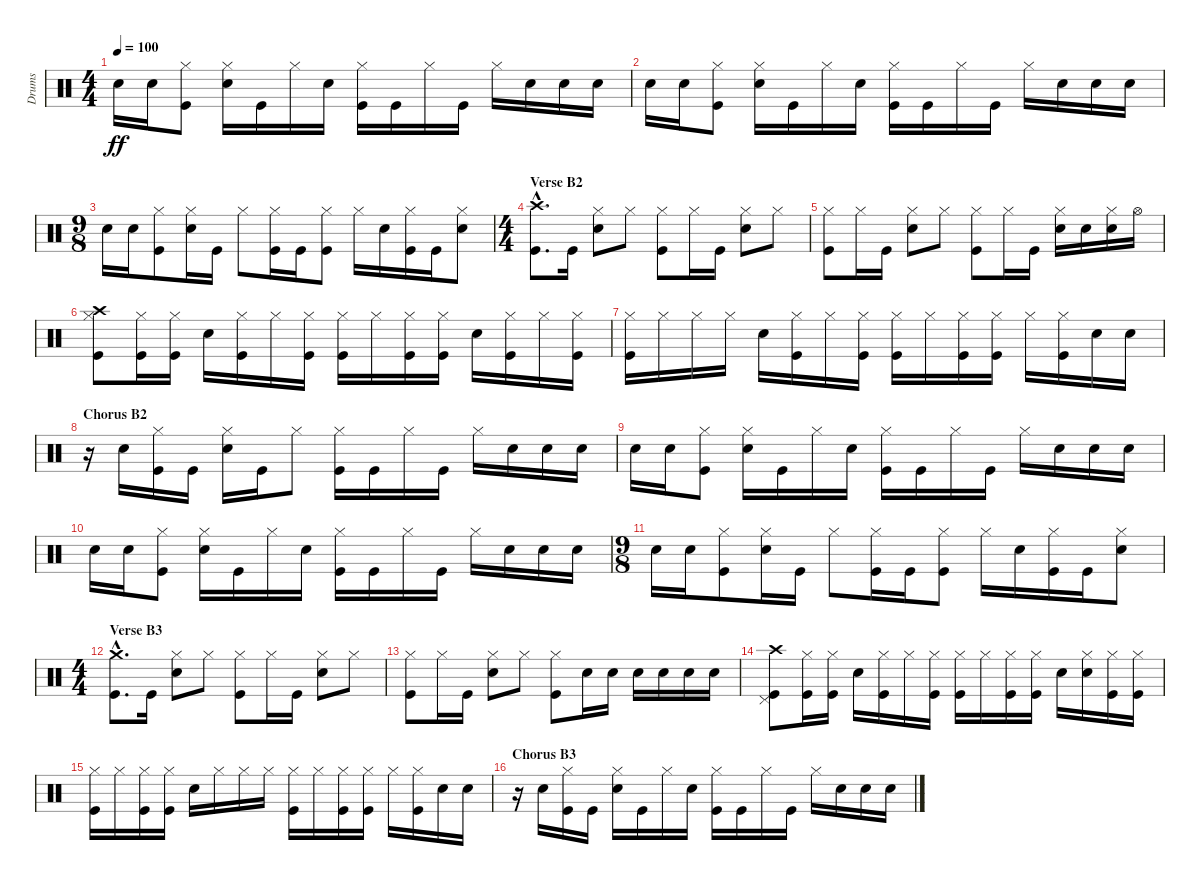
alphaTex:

\track ("Drums" "Drums") {instrument percussion}
\staff {score}
\articulation defaults
\ts (4 4)
\tempo 100
\clef neutral
\ks c "Electric Snare (hit)".16{dy ff} "Electric Snare (hit)".16
("Hi-Hat (closed)" "Kick (hit)").8 ("Hi-Hat (closed)" "Electric Snare (hit)").16 "Kick (hit)".16 "Hi-Hat (closed)".16 "Electric Snare (hit)".16 ("Hi-Hat (closed)" "Kick (hit)").16 "Kick (hit)".16 "Hi-Hat (closed)".16 "Kick (hit)".16 "Hi-Hat (closed)".16 "Electric Snare (hit)".16 "Electric Snare (hit)".16 "Electric Snare (hit)".16 |
"Electric Snare (hit)".16 "Electric Snare (hit)".16 ("Hi-Hat (closed)" "Kick (hit)").8 ("Hi-Hat (closed)" "Electric Snare (hit)").16 "Kick (hit)".16 "Hi-Hat (closed)".16 "Electric Snare (hit)".16 ("Hi-Hat (closed)" "Kick (hit)").16 "Kick (hit)".16 "Hi-Hat (closed)".16 "Kick (hit)".16 "Hi-Hat (closed)".16 "Electric Snare (hit)".16 "Electric Snare (hit)".16 "Electric Snare (hit)".16 |
\ts (9 8)
"Electric Snare (hit)".16 "Electric Snare (hit)".16 ("Hi-Hat (closed)" "Kick (hit)").8 ("Hi-Hat (closed)" "Electric Snare (hit)").16 "Kick (hit)".16 "Hi-Hat (closed)".8 ("Hi-Hat (closed)" "Kick (hit)").16 "Kick (hit)".16 ("Hi-Hat (closed)" "Kick (hit)").8 "Hi-Hat (closed)".16 "Electric Snare (hit)".16 ("Hi-Hat (closed)" "Kick (hit)").16 "Kick (hit)".16 ("Hi-Hat (closed)" "Electric Snare (hit)").8 |
\ts (4 4)
\section ("" "Verse B2")
("Crash high (hit)"{hac} "Kick (hit)"{hac}).8{d} "Kick (hit)".16 ("Hi-Hat (closed)" "Electric Snare (hit)").8 "Hi-Hat (closed)".8 ("Hi-Hat (closed)" "Kick (hit)").8 "Hi-Hat (closed)".16 "Kick (hit)".16 ("Hi-Hat (closed)" "Electric Snare (hit)").8 "Hi-Hat (closed)".8 |
("Hi-Hat (closed)" "Kick (hit)").8 "Hi-Hat (closed)".16 "Kick (hit)".16 ("Hi-Hat (closed)" "Electric Snare (hit)").8 "Hi-Hat (closed)".8 ("Hi-Hat (closed)" "Kick (hit)").8 "Hi-Hat (closed)".16 "Kick (hit)".16 ("Hi-Hat (closed)" "Electric Snare (hit)").16 "Electric Snare (hit)".16 ("Hi-Hat (closed)" "Electric Snare (hit)").16 "Hi-Hat (open)".16 |
("Hi-Hat (closed)" "Crash high (hit)" "Kick (hit)").8 ("Hi-Hat (closed)" "Kick (hit)").16 ("Hi-Hat (closed)" "Kick (hit)").16 "Electric Snare (hit)".16 ("Hi-Hat (closed)" "Kick (hit)").16 "Hi-Hat (closed)".16 ("Hi-Hat (closed)" "Kick (hit)").16 ("Hi-Hat (closed)" "Kick (hit)").16 "Hi-Hat (closed)".16 ("Hi-Hat (closed)" "Kick (hit)").16 ("Hi-Hat (closed)" "Kick (hit)").16 "Electric Snare (hit)".16 ("Hi-Hat (closed)" "Kick (hit)").16 "Hi-Hat (closed)".16 ("Hi-Hat (closed)" "Kick (hit)").16 |
("Hi-Hat (closed)" "Kick (hit)").16 "Hi-Hat (closed)".16 "Hi-Hat (closed)".16 "Hi-Hat (closed)".16 "Electric Snare (hit)".16 ("Hi-Hat (closed)" "Kick (hit)").16 "Hi-Hat (closed)".16 ("Hi-Hat (closed)" "Kick (hit)").16 ("Hi-Hat (closed)" "Kick (hit)").16 "Hi-Hat (closed)".16 ("Hi-Hat (closed)" "Kick (hit)").16 ("Hi-Hat (closed)" "Kick (hit)").16 "Hi-Hat (closed)".16 ("Hi-Hat (closed)" "Kick (hit)").16 "Electric Snare (hit)".16 "Electric Snare (hit)".16 |
\section ("" "Chorus B2")
r.16 "Electric Snare (hit)".16 ("Hi-Hat (closed)" "Kick (hit)").16 "Kick (hit)".16 ("Hi-Hat (closed)" "Electric Snare (hit)").16 "Kick (hit)".16 "Hi-Hat (closed)".8 ("Hi-Hat (closed)" "Kick (hit)").16 "Kick (hit)".16 "Hi-Hat (closed)".16 "Kick (hit)".16 "Hi-Hat (closed)".16 "Electric Snare (hit)".16 "Electric Snare (hit)".16 "Electric Snare (hit)".16 |
"Electric Snare (hit)".16 "Electric Snare (hit)".16 ("Hi-Hat (closed)" "Kick (hit)").8 ("Hi-Hat (closed)" "Electric Snare (hit)").16 "Kick (hit)".16 "Hi-Hat (closed)".16 "Electric Snare (hit)".16 ("Hi-Hat (closed)" "Kick (hit)").16 "Kick (hit)".16 "Hi-Hat (closed)".16 "Kick (hit)".16 "Hi-Hat (closed)".16 "Electric Snare (hit)".16 "Electric Snare (hit)".16 "Electric Snare (hit)".16 |
"Electric Snare (hit)".16 "Electric Snare (hit)".16 ("Hi-Hat (closed)" "Kick (hit)").8 ("Hi-Hat (closed)" "Electric Snare (hit)").16 "Kick (hit)".16 "Hi-Hat (closed)".16 "Electric Snare (hit)".16 ("Hi-Hat (closed)" "Kick (hit)").16 "Kick (hit)".16 "Hi-Hat (closed)".16 "Kick (hit)".16 "Hi-Hat (closed)".16 "Electric Snare (hit)".16 "Electric Snare (hit)".16 "Electric Snare (hit)".16 |
\ts (9 8)
"Electric Snare (hit)".16 "Electric Snare (hit)".16 ("Hi-Hat (closed)" "Kick (hit)").8 ("Hi-Hat (closed)" "Electric Snare (hit)").16 "Kick (hit)".16 "Hi-Hat (closed)".8 ("Hi-Hat (closed)" "Kick (hit)").16 "Kick (hit)".16 ("Hi-Hat (closed)" "Kick (hit)").8 "Hi-Hat (closed)".16 "Electric Snare (hit)".16 ("Hi-Hat (closed)" "Kick (hit)").16 "Kick (hit)".16 ("Hi-Hat (closed)" "Electric Snare (hit)").8 |
\ts (4 4)
\section ("" "Verse B3")
("Crash medium (hit)"{hac} "Kick (hit)"{hac}).8{d} "Kick (hit)".16 ("Hi-Hat (closed)" "Electric Snare (hit)").8 "Hi-Hat (closed)".8 ("Hi-Hat (closed)" "Kick (hit)").8 "Hi-Hat (closed)".16 "Kick (hit)".16 ("Hi-Hat (closed)" "Electric Snare (hit)").8 "Hi-Hat (closed)".8 |
("Hi-Hat (closed)" "Kick (hit)").8 "Hi-Hat (closed)".16 "Kick (hit)".16 ("Hi-Hat (closed)" "Electric Snare (hit)").8 "Hi-Hat (closed)".8 ("Hi-Hat (closed)" "Kick (hit)").8 "Electric Snare (hit)".16 "Electric Snare (hit)".16 "Electric Snare (hit)".16 "Electric Snare (hit)".16 "Electric Snare (hit)".16 "Electric Snare (hit)".16 |
("Pedal Hi-Hat (hit)" "Crash high (hit)" "Kick (hit)").8 ("Hi-Hat (closed)" "Kick (hit)").16 ("Hi-Hat (closed)" "Kick (hit)").16 "Electric Snare (hit)".16 ("Hi-Hat (closed)" "Kick (hit)").16 "Hi-Hat (closed)".16 ("Hi-Hat (closed)" "Kick (hit)").16 ("Hi-Hat (closed)" "Kick (hit)").16 "Hi-Hat (closed)".16 ("Hi-Hat (closed)" "Kick (hit)").16 ("Hi-Hat (closed)" "Kick (hit)").16 "Electric Snare (hit)".16 ("Hi-Hat (closed)" "Electric Snare (hit)").16 ("Hi-Hat (closed)" "Kick (hit)").16 ("Hi-Hat (closed)" "Kick (hit)").16 |
("Hi-Hat (closed)" "Kick (hit)").16 "Hi-Hat (closed)".16 ("Hi-Hat (closed)" "Kick (hit)").16 ("Hi-Hat (closed)" "Kick (hit)").16 "Electric Snare (hit)".16 "Hi-Hat (closed)".16 "Hi-Hat (closed)".16 "Hi-Hat (closed)".16 ("Hi-Hat (closed)" "Kick (hit)").16 "Hi-Hat (closed)".16 ("Hi-Hat (closed)" "Kick (hit)").16 ("Hi-Hat (closed)" "Kick (hit)").16 "Hi-Hat (closed)".16 ("Hi-Hat (closed)" "Kick (hit)").16 "Electric Snare (hit)".16 "Electric Snare (hit)".16 |
\section ("" "Chorus B3")
r.16 "Electric Snare (hit)".16 ("Hi-Hat (closed)" "Kick (hit)").16 "Kick (hit)".16 ("Hi-Hat (closed)" "Electric Snare (hit)").16 "Kick (hit)".16 "Hi-Hat (closed)".16 "Electric Snare (hit)".16 ("Hi-Hat (closed)" "Kick (hit)").16 "Kick (hit)".16 "Hi-Hat (closed)".16 "Kick (hit)".16 "Hi-Hat (closed)".16 "Electric Snare (hit)".16 "Electric Snare (hit)".16 "Electric Snare (hit)".16
